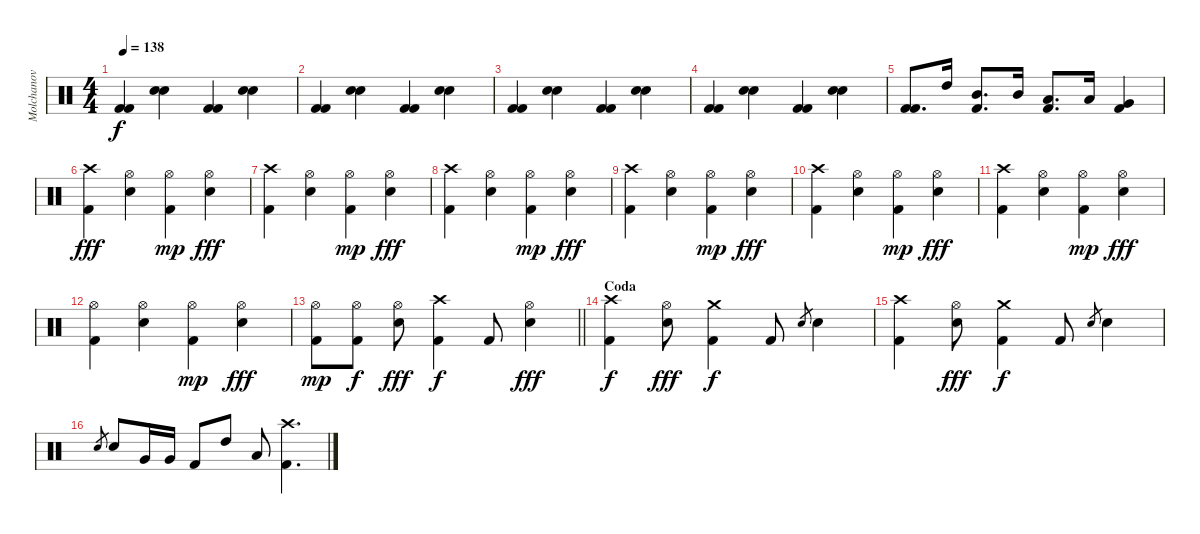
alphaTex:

\track ("Molchanov" "Molchanov") {instrument percussion}
\staff {score}
\articulation defaults
\ts (4 4)
\tempo 138
\clef neutral
\ks c
("Kick (hit) 2" "Kick (hit) 2").4{dy f} ("Electric Snare (hit)" "Electric Snare (hit)").4 ("Kick (hit) 2" "Kick (hit) 2").4 ("Electric Snare (hit)" "Electric Snare (hit)").4 |
("Kick (hit) 2" "Kick (hit) 2").4 ("Electric Snare (hit)" "Electric Snare (hit)").4 ("Kick (hit) 2" "Kick (hit) 2").4 ("Electric Snare (hit)" "Electric Snare (hit)").4 |
("Kick (hit) 2" "Kick (hit) 2").4 ("Electric Snare (hit)" "Electric Snare (hit)").4 ("Kick (hit) 2" "Kick (hit) 2").4 ("Electric Snare (hit)" "Electric Snare (hit)").4 |
("Kick (hit) 2" "Kick (hit) 2").4 ("Electric Snare (hit)" "Electric Snare (hit)").4 ("Kick (hit) 2" "Kick (hit) 2").4 ("Electric Snare (hit)" "Electric Snare (hit)").4 |
("Kick (hit) 2" "Kick (hit) 2").8{d} "High Tom (hit)".16 ("Mid Tom (hit)" "Kick (hit) 2").8{d} "Mid Tom (hit)".16 ("Low Tom (hit)" "Kick (hit) 2").8{d} "Low Tom (hit)".16 ("Very Low Tom (hit)" "Kick (hit) 2").4 |
("Crash high (hit)" "Kick (hit) 2").4{dy fff} ("Hi-Hat (open)" "Electric Snare (hit)").4 ("Hi-Hat (open)" "Kick (hit) 2").4{dy mp} ("Hi-Hat (open)" "Electric Snare (hit)").4{dy fff} |
("Crash high (hit)" "Kick (hit) 2").4 ("Hi-Hat (open)" "Electric Snare (hit)").4 ("Hi-Hat (open)" "Kick (hit) 2").4{dy mp} ("Hi-Hat (open)" "Electric Snare (hit)").4{dy fff} |
("Crash high (hit)" "Kick (hit) 2").4 ("Hi-Hat (open)" "Electric Snare (hit)").4 ("Hi-Hat (open)" "Kick (hit) 2").4{dy mp} ("Hi-Hat (open)" "Electric Snare (hit)").4{dy fff} |
("Crash high (hit)" "Kick (hit) 2").4 ("Hi-Hat (open)" "Electric Snare (hit)").4 ("Hi-Hat (open)" "Kick (hit) 2").4{dy mp} ("Hi-Hat (open)" "Electric Snare (hit)").4{dy fff} |
("Crash high (hit)" "Kick (hit) 2").4 ("Hi-Hat (open)" "Electric Snare (hit)").4 ("Hi-Hat (open)" "Kick (hit) 2").4{dy mp} ("Hi-Hat (open)" "Electric Snare (hit)").4{dy fff} |
("Crash high (hit)" "Kick (hit) 2").4 ("Hi-Hat (open)" "Electric Snare (hit)").4 ("Hi-Hat (open)" "Kick (hit) 2").4{dy mp} ("Hi-Hat (open)" "Electric Snare (hit)").4{dy fff} |
("Hi-Hat (open)" "Kick (hit) 2").4 ("Hi-Hat (open)" "Electric Snare (hit)").4 ("Hi-Hat (open)" "Kick (hit) 2").4{dy mp} ("Hi-Hat (open)" "Electric Snare (hit)").4{dy fff} |
\barLineRight lightlight
("Hi-Hat (open)" "Kick (hit) 2").8{dy mp} ("Hi-Hat (open)" "Kick (hit) 2").8{dy f} ("Hi-Hat (open)" "Electric Snare (hit)").8{dy fff} ("Crash high (hit)" "Kick (hit) 2").4{dy f} "Kick (hit) 2".8 ("Hi-Hat (open)" "Electric Snare (hit)").4{dy fff} |
\section ("" "Coda")
("Crash high (hit)" "Kick (hit) 2").4{dy f} ("Hi-Hat (open)" "Electric Snare (hit)").8{dy fff} ("Crash medium (hit)" "Kick (hit) 2").4{dy f} "Kick (hit) 2".8 "Electric Snare (hit)".8{gr} "Electric Snare (hit)".4 |
("Crash high (hit)" "Kick (hit) 2").4 ("Hi-Hat (open)" "Electric Snare (hit)").8{dy fff} ("Crash medium (hit)" "Kick (hit) 2").4{dy f} "Kick (hit) 2".8 "Electric Snare (hit)".8{gr} "Electric Snare (hit)".4 |
"Electric Snare (hit)".8{gr} "Electric Snare (hit)".8 "Very Low Tom (hit)".16 "Very Low Tom (hit)".16 "Kick (hit) 2".8 "High Tom (hit)".8 "Low Tom (hit)".8 ("Crash high (hit)" "Kick (hit) 2").4{d}
